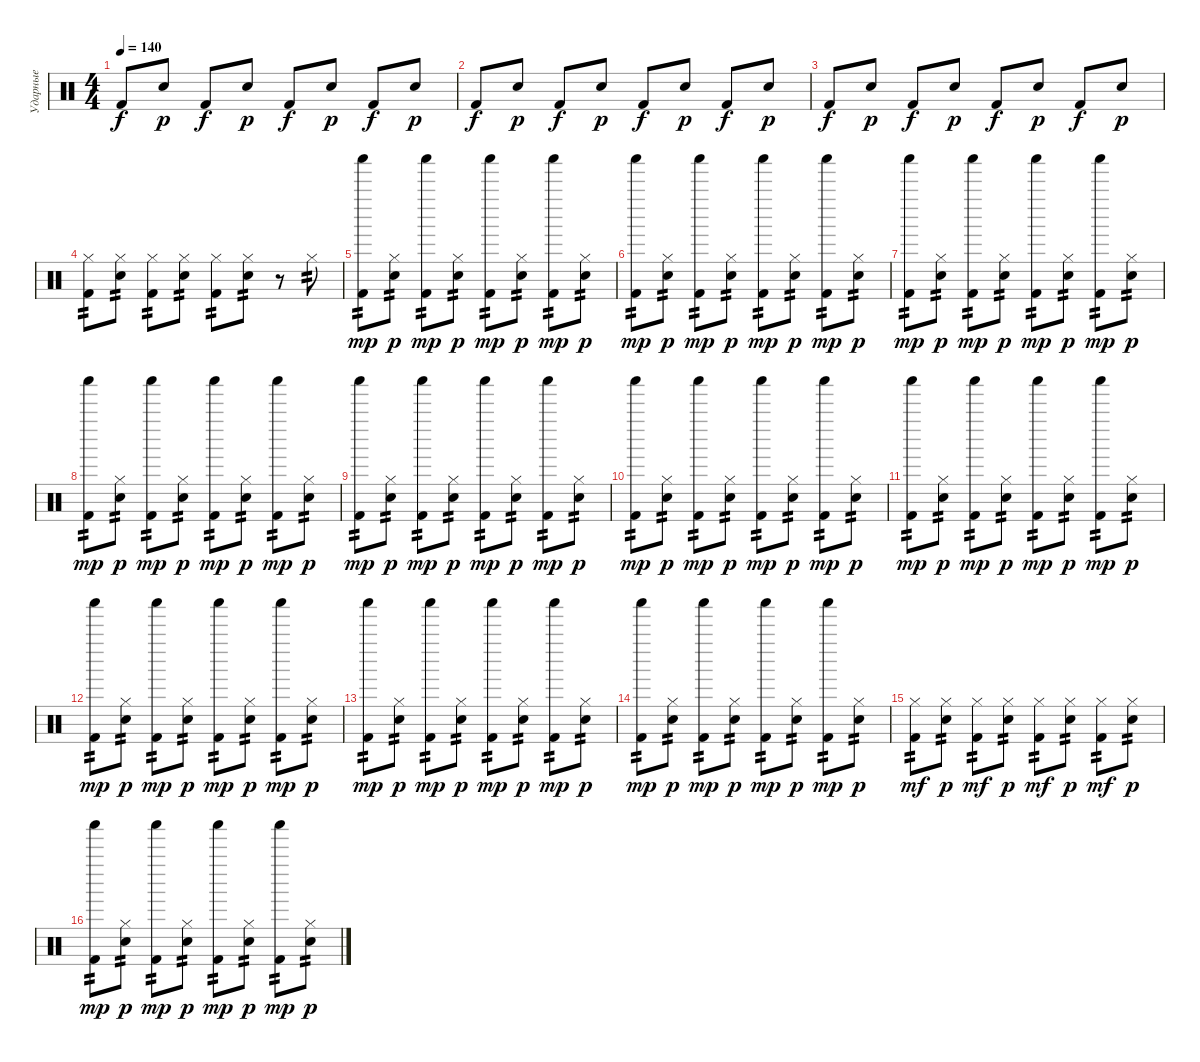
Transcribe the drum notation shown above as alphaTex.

\track ("Ударные" "Ударные") {instrument percussion}
\staff {score}
\articulation defaults
\ts (4 4)
\tempo 140
\clef neutral
\ks c "Kick (hit) 2".8{dy f} "Snare (hit) 2".8{dy p} "Kick (hit) 2".8{dy f} "Snare (hit) 2".8{dy p} "Kick (hit) 2".8{dy f} "Snare (hit) 2".8{dy p} "Kick (hit) 2".8{dy f} "Snare (hit) 2".8{dy p}
|
"Kick (hit) 2".8{dy f} "Snare (hit) 2".8{dy p} "Kick (hit) 2".8{dy f} "Snare (hit) 2".8{dy p} "Kick (hit) 2".8{dy f} "Snare (hit) 2".8{dy p} "Kick (hit) 2".8{dy f} "Snare (hit) 2".8{dy p} |
"Kick (hit) 2".8{dy f} "Snare (hit) 2".8{dy p} "Kick (hit) 2".8{dy f} "Snare (hit) 2".8{dy p} "Kick (hit) 2".8{dy f} "Snare (hit) 2".8{dy p} "Kick (hit) 2".8{dy f} "Snare (hit) 2".8{dy p} |
("Hi-Hat (closed)" "Kick (hit) 2").8{tp 2} ("Hi-Hat (closed)" "Snare (hit) 2").8{tp 2} ("Hi-Hat (closed)" "Kick (hit) 2").8{tp 2} ("Hi-Hat (closed)" "Snare (hit) 2").8{tp 2} ("Hi-Hat (closed)" "Kick (hit) 2").8{tp 2} ("Hi-Hat (closed)" "Snare (hit) 2").8{tp 2} r.8 "Hi-Hat (closed)".8{tp 2} |
("Shaker (hit)" "Kick (hit) 2").8{tp 2 dy mp} ("Hi-Hat (closed)" "Snare (hit) 2").8{tp 2 dy p} ("Shaker (hit)" "Kick (hit) 2").8{tp 2 dy mp} ("Hi-Hat (closed)" "Snare (hit) 2").8{tp 2 dy p} ("Shaker (hit)" "Kick (hit) 2").8{tp 2 dy mp} ("Hi-Hat (closed)" "Snare (hit) 2").8{tp 2 dy p} ("Shaker (hit)" "Kick (hit) 2").8{tp 2 dy mp} ("Hi-Hat (closed)" "Snare (hit) 2").8{tp 2 dy p} |
("Shaker (hit)" "Kick (hit) 2").8{tp 2 dy mp} ("Hi-Hat (closed)" "Snare (hit) 2").8{tp 2 dy p} ("Shaker (hit)" "Kick (hit) 2").8{tp 2 dy mp} ("Hi-Hat (closed)" "Snare (hit) 2").8{tp 2 dy p} ("Shaker (hit)" "Kick (hit) 2").8{tp 2 dy mp} ("Hi-Hat (closed)" "Snare (hit) 2").8{tp 2 dy p} ("Shaker (hit)" "Kick (hit) 2").8{tp 2 dy mp} ("Hi-Hat (closed)" "Snare (hit) 2").8{tp 2 dy p} |
("Shaker (hit)" "Kick (hit) 2").8{tp 2 dy mp} ("Hi-Hat (closed)" "Snare (hit) 2").8{tp 2 dy p} ("Shaker (hit)" "Kick (hit) 2").8{tp 2 dy mp} ("Hi-Hat (closed)" "Snare (hit) 2").8{tp 2 dy p} ("Shaker (hit)" "Kick (hit) 2").8{tp 2 dy mp} ("Hi-Hat (closed)" "Snare (hit) 2").8{tp 2 dy p} ("Shaker (hit)" "Kick (hit) 2").8{tp 2 dy mp} ("Hi-Hat (closed)" "Snare (hit) 2").8{tp 2 dy p} |
("Shaker (hit)" "Kick (hit) 2").8{tp 2 dy mp} ("Hi-Hat (closed)" "Snare (hit) 2").8{tp 2 dy p} ("Shaker (hit)" "Kick (hit) 2").8{tp 2 dy mp} ("Hi-Hat (closed)" "Snare (hit) 2").8{tp 2 dy p} ("Shaker (hit)" "Kick (hit) 2").8{tp 2 dy mp} ("Hi-Hat (closed)" "Snare (hit) 2").8{tp 2 dy p} ("Shaker (hit)" "Kick (hit) 2").8{tp 2 dy mp} ("Hi-Hat (closed)" "Snare (hit) 2").8{tp 2 dy p} |
("Shaker (hit)" "Kick (hit) 2").8{tp 2 dy mp} ("Hi-Hat (closed)" "Snare (hit) 2").8{tp 2 dy p} ("Shaker (hit)" "Kick (hit) 2").8{tp 2 dy mp} ("Hi-Hat (closed)" "Snare (hit) 2").8{tp 2 dy p} ("Shaker (hit)" "Kick (hit) 2").8{tp 2 dy mp} ("Hi-Hat (closed)" "Snare (hit) 2").8{tp 2 dy p} ("Shaker (hit)" "Kick (hit) 2").8{tp 2 dy mp} ("Hi-Hat (closed)" "Snare (hit) 2").8{tp 2 dy p} |
("Shaker (hit)" "Kick (hit) 2").8{tp 2 dy mp} ("Hi-Hat (closed)" "Snare (hit) 2").8{tp 2 dy p} ("Shaker (hit)" "Kick (hit) 2").8{tp 2 dy mp} ("Hi-Hat (closed)" "Snare (hit) 2").8{tp 2 dy p} ("Shaker (hit)" "Kick (hit) 2").8{tp 2 dy mp} ("Hi-Hat (closed)" "Snare (hit) 2").8{tp 2 dy p} ("Shaker (hit)" "Kick (hit) 2").8{tp 2 dy mp} ("Hi-Hat (closed)" "Snare (hit) 2").8{tp 2 dy p} |
("Shaker (hit)" "Kick (hit) 2").8{tp 2 dy mp} ("Hi-Hat (closed)" "Snare (hit) 2").8{tp 2 dy p} ("Shaker (hit)" "Kick (hit) 2").8{tp 2 dy mp} ("Hi-Hat (closed)" "Snare (hit) 2").8{tp 2 dy p} ("Shaker (hit)" "Kick (hit) 2").8{tp 2 dy mp} ("Hi-Hat (closed)" "Snare (hit) 2").8{tp 2 dy p} ("Shaker (hit)" "Kick (hit) 2").8{tp 2 dy mp} ("Hi-Hat (closed)" "Snare (hit) 2").8{tp 2 dy p} |
("Shaker (hit)" "Kick (hit) 2").8{tp 2 dy mp} ("Hi-Hat (closed)" "Snare (hit) 2").8{tp 2 dy p} ("Shaker (hit)" "Kick (hit) 2").8{tp 2 dy mp} ("Hi-Hat (closed)" "Snare (hit) 2").8{tp 2 dy p} ("Shaker (hit)" "Kick (hit) 2").8{tp 2 dy mp} ("Hi-Hat (closed)" "Snare (hit) 2").8{tp 2 dy p} ("Shaker (hit)" "Kick (hit) 2").8{tp 2 dy mp} ("Hi-Hat (closed)" "Snare (hit) 2").8{tp 2 dy p} |
("Shaker (hit)" "Kick (hit) 2").8{tp 2 dy mp} ("Hi-Hat (closed)" "Snare (hit) 2").8{tp 2 dy p} ("Shaker (hit)" "Kick (hit) 2").8{tp 2 dy mp} ("Hi-Hat (closed)" "Snare (hit) 2").8{tp 2 dy p} ("Shaker (hit)" "Kick (hit) 2").8{tp 2 dy mp} ("Hi-Hat (closed)" "Snare (hit) 2").8{tp 2 dy p} ("Shaker (hit)" "Kick (hit) 2").8{tp 2 dy mp} ("Hi-Hat (closed)" "Snare (hit) 2").8{tp 2 dy p} |
("Shaker (hit)" "Kick (hit) 2").8{tp 2 dy mp} ("Hi-Hat (closed)" "Snare (hit) 2").8{tp 2 dy p} ("Shaker (hit)" "Kick (hit) 2").8{tp 2 dy mp} ("Hi-Hat (closed)" "Snare (hit) 2").8{tp 2 dy p} ("Shaker (hit)" "Kick (hit) 2").8{tp 2 dy mp} ("Hi-Hat (closed)" "Snare (hit) 2").8{tp 2 dy p} ("Shaker (hit)" "Kick (hit) 2").8{tp 2 dy mp} ("Hi-Hat (closed)" "Snare (hit) 2").8{tp 2 dy p} |
("Hi-Hat (closed)" "Kick (hit) 2").8{tp 2 dy mf} ("Hi-Hat (closed)" "Snare (hit) 2").8{tp 2 dy p} ("Hi-Hat (closed)" "Kick (hit) 2").8{tp 2 dy mf} ("Hi-Hat (closed)" "Snare (hit) 2").8{tp 2 dy p} ("Hi-Hat (closed)" "Kick (hit) 2").8{tp 2 dy mf} ("Hi-Hat (closed)" "Snare (hit) 2").8{tp 2 dy p} ("Hi-Hat (closed)" "Kick (hit) 2").8{tp 2 dy mf} ("Hi-Hat (closed)" "Snare (hit) 2").8{tp 2 dy p} |
("Shaker (hit)" "Kick (hit) 2").8{tp 2 dy mp} ("Hi-Hat (closed)" "Snare (hit) 2").8{tp 2 dy p} ("Shaker (hit)" "Kick (hit) 2").8{tp 2 dy mp} ("Hi-Hat (closed)" "Snare (hit) 2").8{tp 2 dy p} ("Shaker (hit)" "Kick (hit) 2").8{tp 2 dy mp} ("Hi-Hat (closed)" "Snare (hit) 2").8{tp 2 dy p} ("Shaker (hit)" "Kick (hit) 2").8{tp 2 dy mp} ("Hi-Hat (closed)" "Snare (hit) 2").8{tp 2 dy p}
